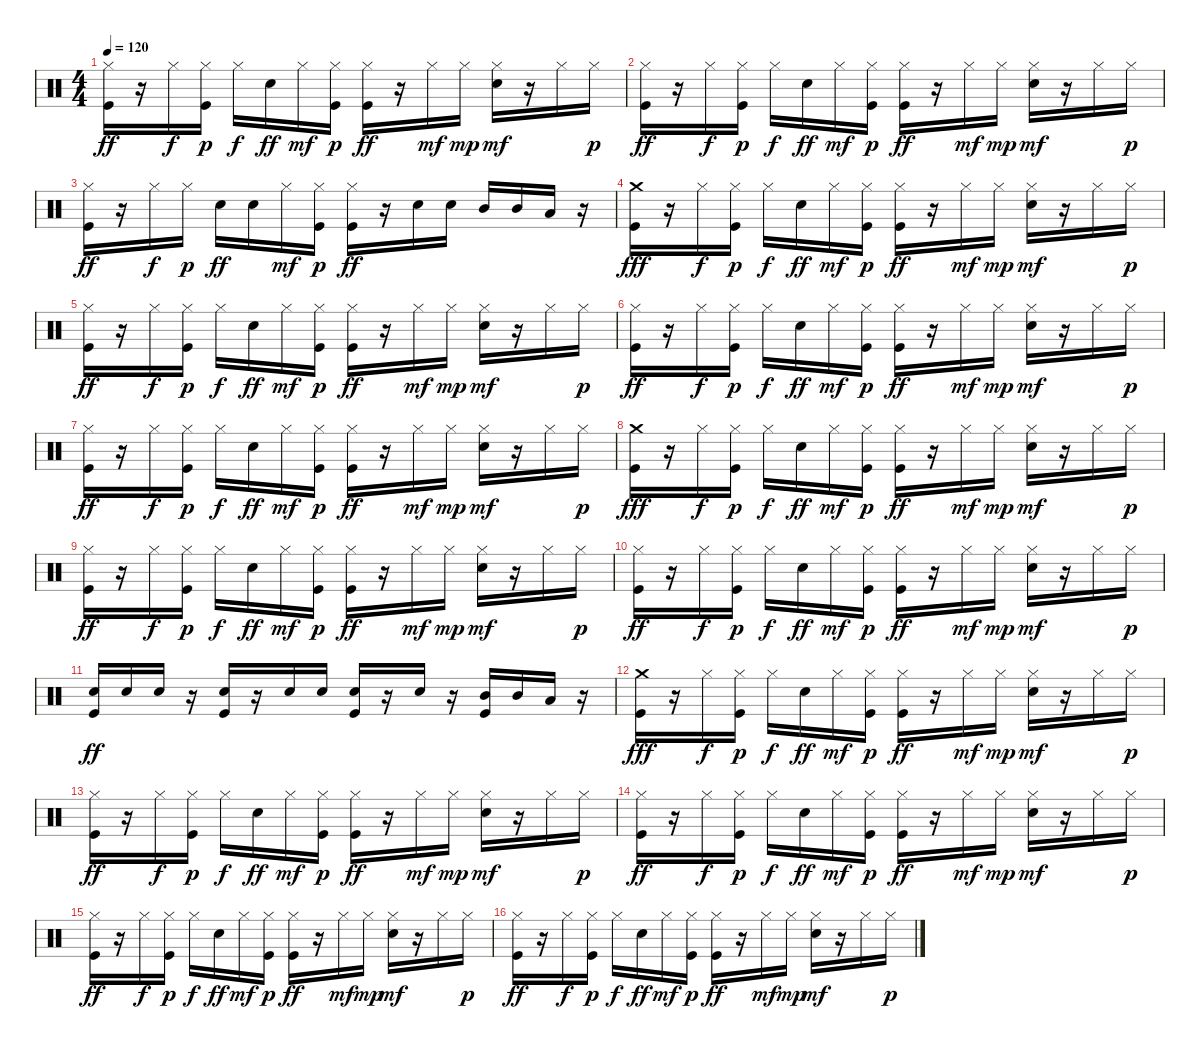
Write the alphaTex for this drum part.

\track "" {instrument percussion}
\staff {score}
\articulation defaults
\ts (4 4)
\tempo 120
\clef neutral
\ks c
("Kick (hit)" "Hi-Hat (closed)").16{dy ff} r.16 "Hi-Hat (closed)".16{dy f} ("Kick (hit)" "Hi-Hat (closed)").16{dy p} "Hi-Hat (closed)".16{dy f} "Electric Snare (hit)".16{dy ff} "Hi-Hat (closed)".16{dy mf} ("Kick (hit)" "Hi-Hat (closed)").16{dy p} ("Kick (hit)" "Hi-Hat (closed)").16{dy ff} r.16 "Hi-Hat (closed)".16{dy mf} "Hi-Hat (closed)".16{dy mp} ("Electric Snare (hit)" "Hi-Hat (closed)").16{dy mf} r.16 "Hi-Hat (closed)".16 "Hi-Hat (closed)".16{dy p} |
("Kick (hit)" "Hi-Hat (closed)").16{dy ff} r.16 "Hi-Hat (closed)".16{dy f} ("Kick (hit)" "Hi-Hat (closed)").16{dy p} "Hi-Hat (closed)".16{dy f} "Electric Snare (hit)".16{dy ff} "Hi-Hat (closed)".16{dy mf} ("Kick (hit)" "Hi-Hat (closed)").16{dy p} ("Kick (hit)" "Hi-Hat (closed)").16{dy ff} r.16 "Hi-Hat (closed)".16{dy mf} "Hi-Hat (closed)".16{dy mp} ("Electric Snare (hit)" "Hi-Hat (closed)").16{dy mf} r.16 "Hi-Hat (closed)".16 "Hi-Hat (closed)".16{dy p} |
("Kick (hit)" "Hi-Hat (closed)").16{dy ff} r.16 "Hi-Hat (closed)".16{dy f} "Hi-Hat (closed)".16{dy p} "Electric Snare (hit)".16{dy ff} "Electric Snare (hit)".16 "Hi-Hat (closed)".16{dy mf} ("Kick (hit)" "Hi-Hat (closed)").16{dy p} ("Kick (hit)" "Hi-Hat (closed)").16{dy ff} r.16 "Electric Snare (hit)".16 "Electric Snare (hit)".16 "Mid Tom (hit)".16 "Mid Tom (hit)".16 "Low Tom (hit)".16 r.16 |
("Kick (hit)" "Crash medium (hit)").16{dy fff} r.16 "Hi-Hat (closed)".16{dy f} ("Kick (hit)" "Hi-Hat (closed)").16{dy p} "Hi-Hat (closed)".16{dy f} "Electric Snare (hit)".16{dy ff} "Hi-Hat (closed)".16{dy mf} ("Kick (hit)" "Hi-Hat (closed)").16{dy p} ("Kick (hit)" "Hi-Hat (closed)").16{dy ff} r.16 "Hi-Hat (closed)".16{dy mf} "Hi-Hat (closed)".16{dy mp} ("Electric Snare (hit)" "Hi-Hat (closed)").16{dy mf} r.16 "Hi-Hat (closed)".16 "Hi-Hat (closed)".16{dy p} |
("Kick (hit)" "Hi-Hat (closed)").16{dy ff} r.16 "Hi-Hat (closed)".16{dy f} ("Kick (hit)" "Hi-Hat (closed)").16{dy p} "Hi-Hat (closed)".16{dy f} "Electric Snare (hit)".16{dy ff} "Hi-Hat (closed)".16{dy mf} ("Kick (hit)" "Hi-Hat (closed)").16{dy p} ("Kick (hit)" "Hi-Hat (closed)").16{dy ff} r.16 "Hi-Hat (closed)".16{dy mf} "Hi-Hat (closed)".16{dy mp} ("Electric Snare (hit)" "Hi-Hat (closed)").16{dy mf} r.16 "Hi-Hat (closed)".16 "Hi-Hat (closed)".16{dy p} |
("Kick (hit)" "Hi-Hat (closed)").16{dy ff} r.16 "Hi-Hat (closed)".16{dy f} ("Kick (hit)" "Hi-Hat (closed)").16{dy p} "Hi-Hat (closed)".16{dy f} "Electric Snare (hit)".16{dy ff} "Hi-Hat (closed)".16{dy mf} ("Kick (hit)" "Hi-Hat (closed)").16{dy p} ("Kick (hit)" "Hi-Hat (closed)").16{dy ff} r.16 "Hi-Hat (closed)".16{dy mf} "Hi-Hat (closed)".16{dy mp} ("Electric Snare (hit)" "Hi-Hat (closed)").16{dy mf} r.16 "Hi-Hat (closed)".16 "Hi-Hat (closed)".16{dy p} |
("Kick (hit)" "Hi-Hat (closed)").16{dy ff} r.16 "Hi-Hat (closed)".16{dy f} ("Kick (hit)" "Hi-Hat (closed)").16{dy p} "Hi-Hat (closed)".16{dy f} "Electric Snare (hit)".16{dy ff} "Hi-Hat (closed)".16{dy mf} ("Kick (hit)" "Hi-Hat (closed)").16{dy p} ("Kick (hit)" "Hi-Hat (closed)").16{dy ff} r.16 "Hi-Hat (closed)".16{dy mf} "Hi-Hat (closed)".16{dy mp} ("Electric Snare (hit)" "Hi-Hat (closed)").16{dy mf} r.16 "Hi-Hat (closed)".16 "Hi-Hat (closed)".16{dy p} |
("Kick (hit)" "Crash medium (hit)").16{dy fff} r.16 "Hi-Hat (closed)".16{dy f} ("Kick (hit)" "Hi-Hat (closed)").16{dy p} "Hi-Hat (closed)".16{dy f} "Electric Snare (hit)".16{dy ff} "Hi-Hat (closed)".16{dy mf} ("Kick (hit)" "Hi-Hat (closed)").16{dy p} ("Kick (hit)" "Hi-Hat (closed)").16{dy ff} r.16 "Hi-Hat (closed)".16{dy mf} "Hi-Hat (closed)".16{dy mp} ("Electric Snare (hit)" "Hi-Hat (closed)").16{dy mf} r.16 "Hi-Hat (closed)".16 "Hi-Hat (closed)".16{dy p} |
("Kick (hit)" "Hi-Hat (closed)").16{dy ff} r.16 "Hi-Hat (closed)".16{dy f} ("Kick (hit)" "Hi-Hat (closed)").16{dy p} "Hi-Hat (closed)".16{dy f} "Electric Snare (hit)".16{dy ff} "Hi-Hat (closed)".16{dy mf} ("Kick (hit)" "Hi-Hat (closed)").16{dy p} ("Kick (hit)" "Hi-Hat (closed)").16{dy ff} r.16 "Hi-Hat (closed)".16{dy mf} "Hi-Hat (closed)".16{dy mp} ("Electric Snare (hit)" "Hi-Hat (closed)").16{dy mf} r.16 "Hi-Hat (closed)".16 "Hi-Hat (closed)".16{dy p} |
("Kick (hit)" "Hi-Hat (closed)").16{dy ff} r.16 "Hi-Hat (closed)".16{dy f} ("Kick (hit)" "Hi-Hat (closed)").16{dy p} "Hi-Hat (closed)".16{dy f} "Electric Snare (hit)".16{dy ff} "Hi-Hat (closed)".16{dy mf} ("Kick (hit)" "Hi-Hat (closed)").16{dy p} ("Kick (hit)" "Hi-Hat (closed)").16{dy ff} r.16 "Hi-Hat (closed)".16{dy mf} "Hi-Hat (closed)".16{dy mp} ("Electric Snare (hit)" "Hi-Hat (closed)").16{dy mf} r.16 "Hi-Hat (closed)".16 "Hi-Hat (closed)".16{dy p} |
("Electric Snare (hit)" "Kick (hit)").16{dy ff} "Electric Snare (hit)".16 "Electric Snare (hit)".16 r.16 ("Electric Snare (hit)" "Kick (hit)").16 r.16 "Electric Snare (hit)".16 "Electric Snare (hit)".16 ("Electric Snare (hit)" "Kick (hit)").16 r.16 "Electric Snare (hit)".16 r.16 ("Kick (hit)" "Mid Tom (hit)").16 "Mid Tom (hit)".16 "Low Tom (hit)".16 r.16 |
("Kick (hit)" "Crash medium (hit)").16{dy fff} r.16 "Hi-Hat (closed)".16{dy f} ("Kick (hit)" "Hi-Hat (closed)").16{dy p} "Hi-Hat (closed)".16{dy f} "Electric Snare (hit)".16{dy ff} "Hi-Hat (closed)".16{dy mf} ("Kick (hit)" "Hi-Hat (closed)").16{dy p} ("Kick (hit)" "Hi-Hat (closed)").16{dy ff} r.16 "Hi-Hat (closed)".16{dy mf} "Hi-Hat (closed)".16{dy mp} ("Electric Snare (hit)" "Hi-Hat (closed)").16{dy mf} r.16 "Hi-Hat (closed)".16 "Hi-Hat (closed)".16{dy p} |
("Kick (hit)" "Hi-Hat (closed)").16{dy ff} r.16 "Hi-Hat (closed)".16{dy f} ("Kick (hit)" "Hi-Hat (closed)").16{dy p} "Hi-Hat (closed)".16{dy f} "Electric Snare (hit)".16{dy ff} "Hi-Hat (closed)".16{dy mf} ("Kick (hit)" "Hi-Hat (closed)").16{dy p} ("Kick (hit)" "Hi-Hat (closed)").16{dy ff} r.16 "Hi-Hat (closed)".16{dy mf} "Hi-Hat (closed)".16{dy mp} ("Electric Snare (hit)" "Hi-Hat (closed)").16{dy mf} r.16 "Hi-Hat (closed)".16 "Hi-Hat (closed)".16{dy p} |
("Kick (hit)" "Hi-Hat (closed)").16{dy ff} r.16 "Hi-Hat (closed)".16{dy f} ("Kick (hit)" "Hi-Hat (closed)").16{dy p} "Hi-Hat (closed)".16{dy f} "Electric Snare (hit)".16{dy ff} "Hi-Hat (closed)".16{dy mf} ("Kick (hit)" "Hi-Hat (closed)").16{dy p} ("Kick (hit)" "Hi-Hat (closed)").16{dy ff} r.16 "Hi-Hat (closed)".16{dy mf} "Hi-Hat (closed)".16{dy mp} ("Electric Snare (hit)" "Hi-Hat (closed)").16{dy mf} r.16 "Hi-Hat (closed)".16 "Hi-Hat (closed)".16{dy p} |
("Kick (hit)" "Hi-Hat (closed)").16{dy ff} r.16 "Hi-Hat (closed)".16{dy f} ("Kick (hit)" "Hi-Hat (closed)").16{dy p} "Hi-Hat (closed)".16{dy f} "Electric Snare (hit)".16{dy ff} "Hi-Hat (closed)".16{dy mf} ("Kick (hit)" "Hi-Hat (closed)").16{dy p} ("Kick (hit)" "Hi-Hat (closed)").16{dy ff} r.16 "Hi-Hat (closed)".16{dy mf} "Hi-Hat (closed)".16{dy mp} ("Electric Snare (hit)" "Hi-Hat (closed)").16{dy mf} r.16 "Hi-Hat (closed)".16 "Hi-Hat (closed)".16{dy p} |
("Kick (hit)" "Hi-Hat (closed)").16{dy ff} r.16 "Hi-Hat (closed)".16{dy f} ("Kick (hit)" "Hi-Hat (closed)").16{dy p} "Hi-Hat (closed)".16{dy f} "Electric Snare (hit)".16{dy ff} "Hi-Hat (closed)".16{dy mf} ("Kick (hit)" "Hi-Hat (closed)").16{dy p} ("Kick (hit)" "Hi-Hat (closed)").16{dy ff} r.16 "Hi-Hat (closed)".16{dy mf} "Hi-Hat (closed)".16{dy mp} ("Electric Snare (hit)" "Hi-Hat (closed)").16{dy mf} r.16 "Hi-Hat (closed)".16 "Hi-Hat (closed)".16{dy p}
